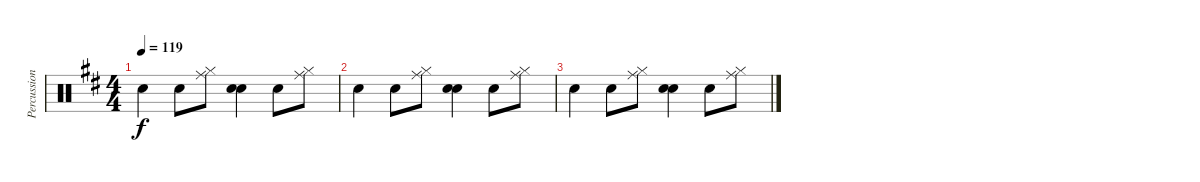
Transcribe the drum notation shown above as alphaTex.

\track ("Percussion" "Percussion") {instrument percussion}
\staff {score}
\articulation defaults
\ts (4 4)
\tempo 119
\clef neutral
\ks d "Electric Snare (hit)".4{dy f} "Electric Snare (hit)".8
("Hi-Hat (closed)" "Ride (middle)").8 ("Electric Snare (hit)" "Electric Snare (hit)").4 "Electric Snare (hit)".8 ("Ride (middle)" "Hi-Hat (closed)").8 |
"Electric Snare (hit)".4 "Electric Snare (hit)".8 ("Hi-Hat (closed)" "Ride (middle)").8 ("Electric Snare (hit)" "Electric Snare (hit)").4 "Electric Snare (hit)".8 ("Ride (middle)" "Hi-Hat (closed)").8 |
"Electric Snare (hit)".4 "Electric Snare (hit)".8 ("Hi-Hat (closed)" "Ride (middle)").8 ("Electric Snare (hit)" "Electric Snare (hit)").4 "Electric Snare (hit)".8 ("Ride (middle)" "Hi-Hat (closed)").8
